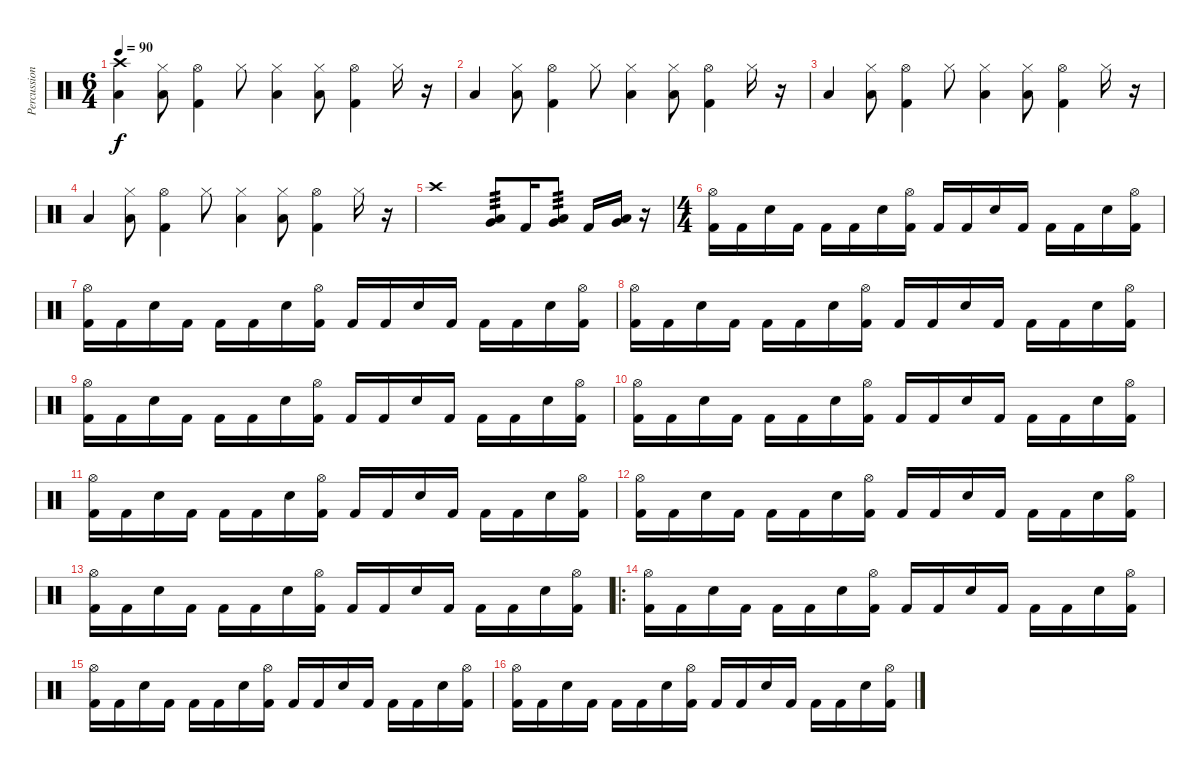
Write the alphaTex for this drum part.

\track ("Percussion" "Percussion") {instrument percussion}
\staff {score}
\articulation defaults
\ts (6 4)
\tempo 90
\clef neutral
\ks c
("Crash high (hit)" "Low Floor Tom (hit)").4{dy f} ("Hi-Hat (closed)" "Low Floor Tom (hit)").8 ("Hi-Hat (open)" "Kick (hit) 2").4 "Hi-Hat (closed)".8 ("Hi-Hat (closed)" "Low Floor Tom (hit)").4 ("Hi-Hat (closed)" "Low Floor Tom (hit)").8 ("Hi-Hat (open)" "Kick (hit) 2").4 "Hi-Hat (closed)".16 r.16 |
"Low Floor Tom (hit)".4 ("Hi-Hat (closed)" "Low Floor Tom (hit)").8 ("Hi-Hat (open)" "Kick (hit) 2").4 "Hi-Hat (closed)".8 ("Hi-Hat (closed)" "Low Floor Tom (hit)").4 ("Hi-Hat (closed)" "Low Floor Tom (hit)").8 ("Hi-Hat (open)" "Kick (hit) 2").4 "Hi-Hat (closed)".16 r.16 |
"Low Floor Tom (hit)".4 ("Hi-Hat (closed)" "Low Floor Tom (hit)").8 ("Hi-Hat (open)" "Kick (hit) 2").4 "Hi-Hat (closed)".8 ("Hi-Hat (closed)" "Low Floor Tom (hit)").4 ("Hi-Hat (closed)" "Low Floor Tom (hit)").8 ("Hi-Hat (open)" "Kick (hit) 2").4 "Hi-Hat (closed)".16 r.16 |
"Low Floor Tom (hit)".4 ("Hi-Hat (closed)" "Low Floor Tom (hit)").8 ("Hi-Hat (open)" "Kick (hit) 2").4 "Hi-Hat (closed)".8 ("Hi-Hat (closed)" "Low Floor Tom (hit)").4 ("Hi-Hat (closed)" "Low Floor Tom (hit)").8 ("Hi-Hat (open)" "Kick (hit) 2").4 "Hi-Hat (closed)".16 r.16 |
"Crash high (hit)".1 ("Very Low Tom (hit)" "Low Floor Tom (hit)").8{tp 3} "Kick (hit) 2".16 ("Very Low Tom (hit)" "Low Floor Tom (hit)").8{tp 3} "Kick (hit) 2".16 ("Very Low Tom (hit)" "Low Floor Tom (hit)").16 r.16 |
\ts (4 4)
("Hi-Hat (open)" "Kick (hit) 2").16 "Kick (hit) 2".16 "Snare (hit) 2".16 "Kick (hit) 2".16 "Kick (hit) 2".16 "Kick (hit) 2".16 "Snare (hit) 2".16 ("Hi-Hat (open)" "Kick (hit) 2").16 "Kick (hit) 2".16 "Kick (hit) 2".16 "Snare (hit) 2".16 "Kick (hit) 2".16 "Kick (hit) 2".16 "Kick (hit) 2".16 "Snare (hit) 2".16 ("Hi-Hat (open)" "Kick (hit) 2").16 |
("Hi-Hat (open)" "Kick (hit) 2").16 "Kick (hit) 2".16 "Snare (hit) 2".16 "Kick (hit) 2".16 "Kick (hit) 2".16 "Kick (hit) 2".16 "Snare (hit) 2".16 ("Hi-Hat (open)" "Kick (hit) 2").16 "Kick (hit) 2".16 "Kick (hit) 2".16 "Snare (hit) 2".16 "Kick (hit) 2".16 "Kick (hit) 2".16 "Kick (hit) 2".16 "Snare (hit) 2".16 ("Hi-Hat (open)" "Kick (hit) 2").16 |
("Hi-Hat (open)" "Kick (hit) 2").16 "Kick (hit) 2".16 "Snare (hit) 2".16 "Kick (hit) 2".16 "Kick (hit) 2".16 "Kick (hit) 2".16 "Snare (hit) 2".16 ("Hi-Hat (open)" "Kick (hit) 2").16 "Kick (hit) 2".16 "Kick (hit) 2".16 "Snare (hit) 2".16 "Kick (hit) 2".16 "Kick (hit) 2".16 "Kick (hit) 2".16 "Snare (hit) 2".16 ("Hi-Hat (open)" "Kick (hit) 2").16 |
("Hi-Hat (open)" "Kick (hit) 2").16 "Kick (hit) 2".16 "Snare (hit) 2".16 "Kick (hit) 2".16 "Kick (hit) 2".16 "Kick (hit) 2".16 "Snare (hit) 2".16 ("Hi-Hat (open)" "Kick (hit) 2").16 "Kick (hit) 2".16 "Kick (hit) 2".16 "Snare (hit) 2".16 "Kick (hit) 2".16 "Kick (hit) 2".16 "Kick (hit) 2".16 "Snare (hit) 2".16 ("Hi-Hat (open)" "Kick (hit) 2").16 |
("Hi-Hat (open)" "Kick (hit) 2").16 "Kick (hit) 2".16 "Snare (hit) 2".16 "Kick (hit) 2".16 "Kick (hit) 2".16 "Kick (hit) 2".16 "Snare (hit) 2".16 ("Hi-Hat (open)" "Kick (hit) 2").16 "Kick (hit) 2".16 "Kick (hit) 2".16 "Snare (hit) 2".16 "Kick (hit) 2".16 "Kick (hit) 2".16 "Kick (hit) 2".16 "Snare (hit) 2".16 ("Hi-Hat (open)" "Kick (hit) 2").16 |
("Hi-Hat (open)" "Kick (hit) 2").16 "Kick (hit) 2".16 "Snare (hit) 2".16 "Kick (hit) 2".16 "Kick (hit) 2".16 "Kick (hit) 2".16 "Snare (hit) 2".16 ("Hi-Hat (open)" "Kick (hit) 2").16 "Kick (hit) 2".16 "Kick (hit) 2".16 "Snare (hit) 2".16 "Kick (hit) 2".16 "Kick (hit) 2".16 "Kick (hit) 2".16 "Snare (hit) 2".16 ("Hi-Hat (open)" "Kick (hit) 2").16 |
("Hi-Hat (open)" "Kick (hit) 2").16 "Kick (hit) 2".16 "Snare (hit) 2".16 "Kick (hit) 2".16 "Kick (hit) 2".16 "Kick (hit) 2".16 "Snare (hit) 2".16 ("Hi-Hat (open)" "Kick (hit) 2").16 "Kick (hit) 2".16 "Kick (hit) 2".16 "Snare (hit) 2".16 "Kick (hit) 2".16 "Kick (hit) 2".16 "Kick (hit) 2".16 "Snare (hit) 2".16 ("Hi-Hat (open)" "Kick (hit) 2").16 |
("Hi-Hat (open)" "Kick (hit) 2").16 "Kick (hit) 2".16 "Snare (hit) 2".16 "Kick (hit) 2".16 "Kick (hit) 2".16 "Kick (hit) 2".16 "Snare (hit) 2".16 ("Hi-Hat (open)" "Kick (hit) 2").16 "Kick (hit) 2".16 "Kick (hit) 2".16 "Snare (hit) 2".16 "Kick (hit) 2".16 "Kick (hit) 2".16 "Kick (hit) 2".16 "Snare (hit) 2".16 ("Hi-Hat (open)" "Kick (hit) 2").16 |
\ro
("Hi-Hat (open)" "Kick (hit) 2").16 "Kick (hit) 2".16 "Snare (hit) 2".16 "Kick (hit) 2".16 "Kick (hit) 2".16 "Kick (hit) 2".16 "Snare (hit) 2".16 ("Hi-Hat (open)" "Kick (hit) 2").16 "Kick (hit) 2".16 "Kick (hit) 2".16 "Snare (hit) 2".16 "Kick (hit) 2".16 "Kick (hit) 2".16 "Kick (hit) 2".16 "Snare (hit) 2".16 ("Hi-Hat (open)" "Kick (hit) 2").16 |
("Hi-Hat (open)" "Kick (hit) 2").16 "Kick (hit) 2".16 "Snare (hit) 2".16 "Kick (hit) 2".16 "Kick (hit) 2".16 "Kick (hit) 2".16 "Snare (hit) 2".16 ("Hi-Hat (open)" "Kick (hit) 2").16 "Kick (hit) 2".16 "Kick (hit) 2".16 "Snare (hit) 2".16 "Kick (hit) 2".16 "Kick (hit) 2".16 "Kick (hit) 2".16 "Snare (hit) 2".16 ("Hi-Hat (open)" "Kick (hit) 2").16 |
("Hi-Hat (open)" "Kick (hit) 2").16 "Kick (hit) 2".16 "Snare (hit) 2".16 "Kick (hit) 2".16 "Kick (hit) 2".16 "Kick (hit) 2".16 "Snare (hit) 2".16 ("Hi-Hat (open)" "Kick (hit) 2").16 "Kick (hit) 2".16 "Kick (hit) 2".16 "Snare (hit) 2".16 "Kick (hit) 2".16 "Kick (hit) 2".16 "Kick (hit) 2".16 "Snare (hit) 2".16 ("Hi-Hat (open)" "Kick (hit) 2").16
